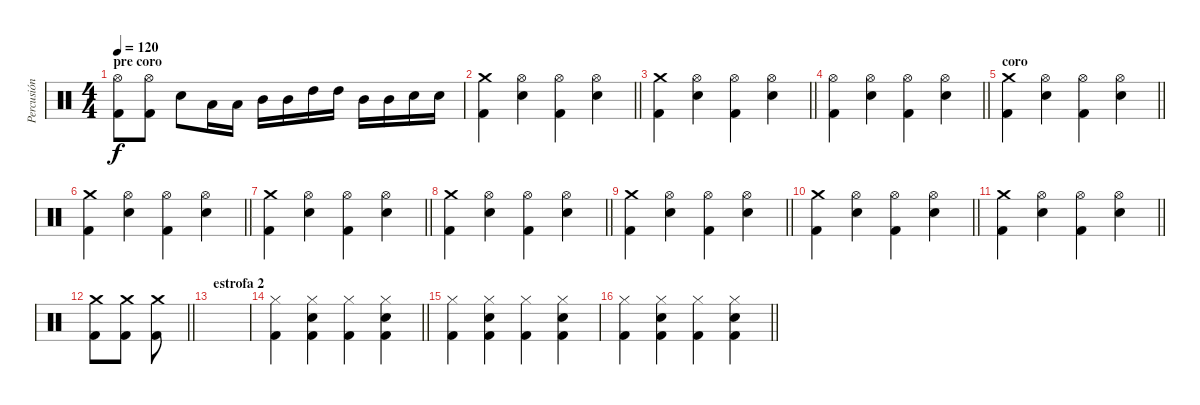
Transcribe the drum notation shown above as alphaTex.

\track ("Percusión" "Percusión") {instrument percussion}
\staff {score}
\articulation defaults
\ts (4 4)
\section ("" "pre coro")
\tempo 120
\clef neutral
\ks c
("Hi-Hat (open)" "Kick (hit) 2").8{dy f} ("Hi-Hat (open)" "Kick (hit) 2").8 "Snare (hit) 2".8 "Low Tom (hit)".16 "Low Tom (hit)".16 "Mid Tom (hit)".16 "Mid Tom (hit)".16 "High Tom (hit)".16 "High Tom (hit)".16 "Mid Tom (hit)".16 "Mid Tom (hit)".16 "Snare (hit) 2".16 "Snare (hit) 2".16 |
\barLineRight lightlight
("Crash medium (hit)" "Kick (hit) 2").4 ("Hi-Hat (open)" "Snare (hit) 2").4 ("Hi-Hat (open)" "Kick (hit) 2").4 ("Hi-Hat (open)" "Snare (hit) 2").4 |
\barLineRight lightlight
("Crash medium (hit)" "Kick (hit) 2").4 ("Hi-Hat (open)" "Snare (hit) 2").4 ("Hi-Hat (open)" "Kick (hit) 2").4 ("Hi-Hat (open)" "Snare (hit) 2").4 |
\barLineRight lightlight
("Hi-Hat (open)" "Kick (hit) 2").4 ("Hi-Hat (open)" "Snare (hit) 2").4 ("Hi-Hat (open)" "Kick (hit) 2").4 ("Hi-Hat (open)" "Snare (hit) 2").4 |
\section ("" "coro")
\barLineRight lightlight
("Crash medium (hit)" "Kick (hit) 2").4 ("Hi-Hat (open)" "Snare (hit) 2").4 ("Hi-Hat (open)" "Kick (hit) 2").4 ("Hi-Hat (open)" "Snare (hit) 2").4 |
\barLineRight lightlight
("Crash medium (hit)" "Kick (hit) 2").4 ("Hi-Hat (open)" "Snare (hit) 2").4 ("Hi-Hat (open)" "Kick (hit) 2").4 ("Hi-Hat (open)" "Snare (hit) 2").4 |
\barLineRight lightlight
("Crash medium (hit)" "Kick (hit) 2").4 ("Hi-Hat (open)" "Snare (hit) 2").4 ("Hi-Hat (open)" "Kick (hit) 2").4 ("Hi-Hat (open)" "Snare (hit) 2").4 |
\barLineRight lightlight
("Crash medium (hit)" "Kick (hit) 2").4 ("Hi-Hat (open)" "Snare (hit) 2").4 ("Hi-Hat (open)" "Kick (hit) 2").4 ("Hi-Hat (open)" "Snare (hit) 2").4 |
\barLineRight lightlight
("Crash medium (hit)" "Kick (hit) 2").4 ("Hi-Hat (open)" "Snare (hit) 2").4 ("Hi-Hat (open)" "Kick (hit) 2").4 ("Hi-Hat (open)" "Snare (hit) 2").4 |
\barLineRight lightlight
("Crash medium (hit)" "Kick (hit) 2").4 ("Hi-Hat (open)" "Snare (hit) 2").4 ("Hi-Hat (open)" "Kick (hit) 2").4 ("Hi-Hat (open)" "Snare (hit) 2").4 |
\barLineRight lightlight
("Crash medium (hit)" "Kick (hit) 2").4 ("Hi-Hat (open)" "Snare (hit) 2").4 ("Hi-Hat (open)" "Kick (hit) 2").4 ("Hi-Hat (open)" "Snare (hit) 2").4 |
\barLineRight lightlight
("Crash medium (hit)" "Kick (hit) 2").8 ("Crash medium (hit)" "Kick (hit) 2").8 ("Crash medium (hit)" "Kick (hit) 2").8 |
\section ("" "estrofa 2")
|
\barLineRight lightlight
("Hi-Hat (closed)" "Kick (hit) 2").4 ("Hi-Hat (closed)" "Snare (hit) 2" "Kick (hit) 2").4 ("Hi-Hat (closed)" "Kick (hit) 2").4 ("Hi-Hat (closed)" "Snare (hit) 2" "Kick (hit) 2").4 |
("Hi-Hat (closed)" "Kick (hit) 2").4 ("Hi-Hat (closed)" "Snare (hit) 2" "Kick (hit) 2").4 ("Hi-Hat (closed)" "Kick (hit) 2").4 ("Hi-Hat (closed)" "Snare (hit) 2" "Kick (hit) 2").4 |
\barLineRight lightlight
("Hi-Hat (closed)" "Kick (hit) 2").4 ("Hi-Hat (closed)" "Snare (hit) 2" "Kick (hit) 2").4 ("Hi-Hat (closed)" "Kick (hit) 2").4 ("Hi-Hat (closed)" "Snare (hit) 2" "Kick (hit) 2").4
